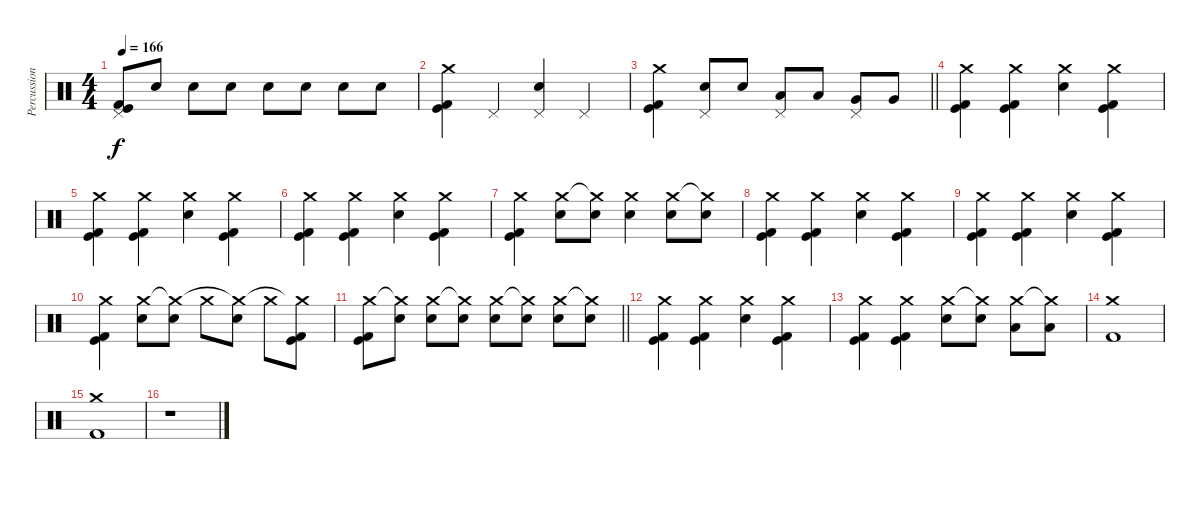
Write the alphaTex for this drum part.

\track ("Percussion" "Percussion") {instrument percussion}
\staff {score}
\articulation defaults
\ts (4 4)
\tempo 166
\clef neutral
\ks c
("Kick (hit) 2" "Pedal Hi-Hat (hit)" "Kick (hit)").8{dy f} "Electric Snare (hit)".8 "Electric Snare (hit)".8 "Electric Snare (hit)".8 "Electric Snare (hit)".8 "Electric Snare (hit)".8 "Electric Snare (hit)".8 "Electric Snare (hit)".8 |
("Kick (hit) 2" "Crash medium (hit)" "Kick (hit)").4 "Pedal Hi-Hat (hit)".4 ("Electric Snare (hit)" "Pedal Hi-Hat (hit)").4 "Pedal Hi-Hat (hit)".4 |
\barLineRight lightlight
("Kick (hit) 2" "Crash medium (hit)" "Kick (hit)").4 ("Electric Snare (hit)" "Pedal Hi-Hat (hit)").8 "Electric Snare (hit)".8 ("Low Tom (hit)" "Pedal Hi-Hat (hit)").8 "Low Tom (hit)".8 ("Very Low Tom (hit)" "Pedal Hi-Hat (hit)").8 "Very Low Tom (hit)".8 |
("Kick (hit) 2" "Crash medium (hit)" "Kick (hit)").4 ("Kick (hit) 2" "Crash medium (hit)" "Kick (hit)").4 ("Electric Snare (hit)" "Crash medium (hit)").4 ("Kick (hit) 2" "Crash medium (hit)" "Kick (hit)").4 |
("Kick (hit) 2" "Crash medium (hit)" "Kick (hit)").4 ("Kick (hit) 2" "Crash medium (hit)" "Kick (hit)").4 ("Electric Snare (hit)" "Crash medium (hit)").4 ("Kick (hit) 2" "Crash medium (hit)" "Kick (hit)").4 |
("Kick (hit) 2" "Crash medium (hit)" "Kick (hit)").4 ("Kick (hit) 2" "Crash medium (hit)" "Kick (hit)").4 ("Electric Snare (hit)" "Crash medium (hit)").4 ("Kick (hit) 2" "Crash medium (hit)" "Kick (hit)").4 |
("Kick (hit) 2" "Crash medium (hit)" "Kick (hit)").4 ("Electric Snare (hit)" "Crash medium (hit)").8 ("Electric Snare (hit)" "Crash medium (hit)"{t}).8 ("Electric Snare (hit)" "Crash medium (hit)").4 ("Electric Snare (hit)" "Crash medium (hit)").8 ("Electric Snare (hit)" "Crash medium (hit)"{t}).8 |
("Kick (hit) 2" "Crash medium (hit)" "Kick (hit)").4 ("Kick (hit) 2" "Crash medium (hit)" "Kick (hit)").4 ("Electric Snare (hit)" "Crash medium (hit)").4 ("Kick (hit) 2" "Crash medium (hit)" "Kick (hit)").4 |
("Kick (hit) 2" "Crash medium (hit)" "Kick (hit)").4 ("Kick (hit) 2" "Crash medium (hit)" "Kick (hit)").4 ("Electric Snare (hit)" "Crash medium (hit)").4 ("Kick (hit) 2" "Crash medium (hit)" "Kick (hit)").4 |
("Kick (hit) 2" "Crash medium (hit)" "Kick (hit)").4 ("Electric Snare (hit)" "Crash medium (hit)").8 ("Electric Snare (hit)" "Crash medium (hit)"{t}).8 "Crash medium (hit)".8 ("Electric Snare (hit)" "Crash medium (hit)"{t}).8 "Crash medium (hit)".8 ("Kick (hit) 2" "Crash medium (hit)"{t} "Kick (hit)").8 |
\barLineRight lightlight
("Kick (hit) 2" "Crash medium (hit)" "Kick (hit)").8 ("Electric Snare (hit)" "Crash medium (hit)"{t}).8 ("Electric Snare (hit)" "Crash medium (hit)").8 ("Electric Snare (hit)" "Crash medium (hit)"{t}).8 ("Electric Snare (hit)" "Crash medium (hit)").8 ("Electric Snare (hit)" "Crash medium (hit)"{t}).8 ("Electric Snare (hit)" "Crash medium (hit)").8 ("Electric Snare (hit)" "Crash medium (hit)"{t}).8 |
("Kick (hit) 2" "Crash medium (hit)" "Kick (hit)").4 ("Kick (hit) 2" "Crash medium (hit)" "Kick (hit)").4 ("Electric Snare (hit)" "Crash medium (hit)").4 ("Kick (hit) 2" "Crash medium (hit)" "Kick (hit)").4 |
("Kick (hit) 2" "Crash medium (hit)" "Kick (hit)").4 ("Kick (hit) 2" "Crash medium (hit)" "Kick (hit)").4 ("Electric Snare (hit)" "Crash medium (hit)").8 ("Electric Snare (hit)" "Crash medium (hit)"{t}).8 ("Low Tom (hit)" "Crash medium (hit)").8 ("Low Tom (hit)" "Crash medium (hit)"{t}).8 |
("Kick (hit) 2" "Crash medium (hit)").1 |
("Kick (hit) 2" "Crash medium (hit)").1 |
r.1
